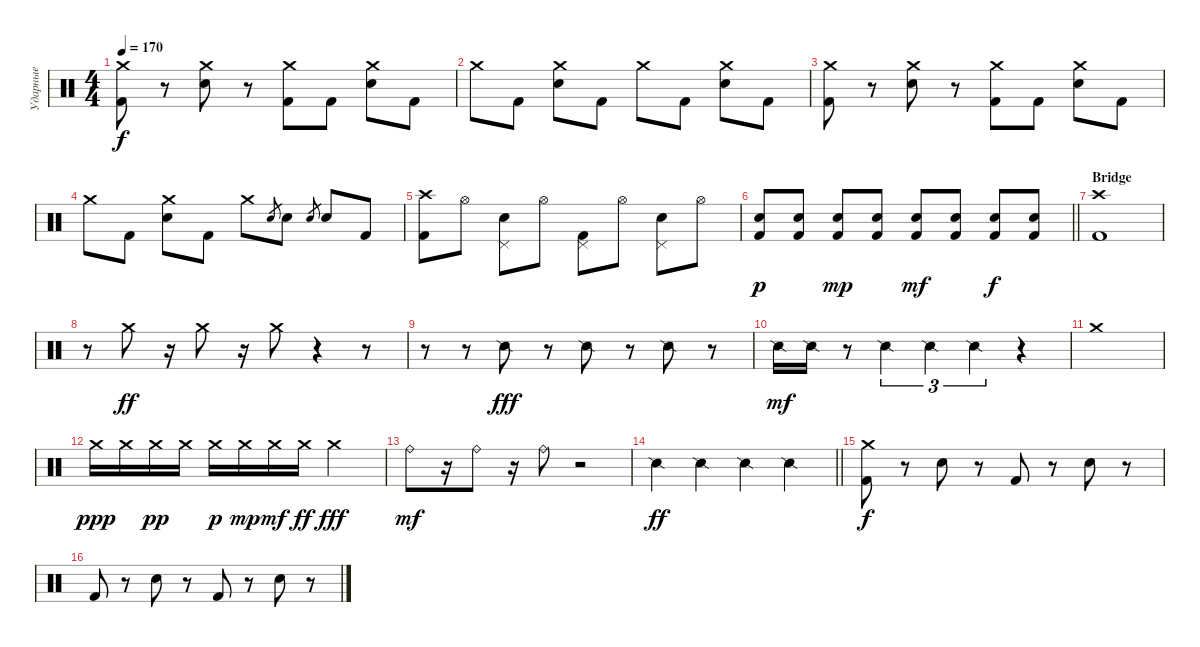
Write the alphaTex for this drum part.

\track ("Ударные" "Ударные") {instrument percussion}
\staff {score}
\articulation defaults
\ts (4 4)
\tempo 170
\clef neutral
\ks c
("Crash medium (hit)" "Kick (hit) 2").8{dy f} r.8 ("Crash medium (hit)" "Electric Snare (hit)").8 r.8 ("Crash medium (hit)" "Kick (hit) 2").8 "Kick (hit) 2".8 ("Crash medium (hit)" "Electric Snare (hit)").8 "Kick (hit) 2".8 |
"Crash medium (hit)".8 "Kick (hit) 2".8 ("Crash medium (hit)" "Electric Snare (hit)").8 "Kick (hit) 2".8 "Crash medium (hit)".8 "Kick (hit) 2".8 ("Crash medium (hit)" "Electric Snare (hit)").8 "Kick (hit) 2".8 |
("Crash medium (hit)" "Kick (hit) 2").8 r.8 ("Crash medium (hit)" "Electric Snare (hit)").8 r.8 ("Crash medium (hit)" "Kick (hit) 2").8 "Kick (hit) 2".8 ("Crash medium (hit)" "Electric Snare (hit)").8 "Kick (hit) 2".8 |
"Crash medium (hit)".8 "Kick (hit) 2".8 ("Crash medium (hit)" "Electric Snare (hit)").8 "Kick (hit) 2".8 "Crash medium (hit)".8 "Electric Snare (hit)".8{gr} "Electric Snare (hit)".8 "Electric Snare (hit)".8{gr} "Electric Snare (hit)".8 "Kick (hit) 2".8 |
("Crash high (hit)" "Kick (hit) 2").8 "Hi-Hat (open)".8 ("Pedal Hi-Hat (hit)" "Electric Snare (hit)").8 "Hi-Hat (open)".8 ("Pedal Hi-Hat (hit)" "Kick (hit) 2").8 "Hi-Hat (open)".8 ("Pedal Hi-Hat (hit)" "Electric Snare (hit)").8 "Hi-Hat (open)".8 |
\barLineRight lightlight
("Electric Snare (hit)" "Kick (hit) 2").8{dy p} ("Electric Snare (hit)" "Kick (hit) 2").8 ("Electric Snare (hit)" "Kick (hit) 2").8{dy mp} ("Electric Snare (hit)" "Kick (hit) 2").8 ("Electric Snare (hit)" "Kick (hit) 2").8{dy mf} ("Electric Snare (hit)" "Kick (hit) 2").8 ("Electric Snare (hit)" "Kick (hit) 2").8{dy f} ("Electric Snare (hit)" "Kick (hit) 2").8 |
\section ("" "Bridge")
("Crash high (hit)" "Kick (hit) 2").1 |
r.8 "Crash medium (hit)".8{dy ff} r.16 "Crash medium (hit)".8 r.16 "Crash medium (hit)".8 r.4 r.8 |
r.8 r.8 "Snare (side stick) 2".8{dy fff} r.8 "Snare (side stick) 2".8 r.8 "Snare (side stick) 2".8 r.8 |
"Snare (side stick) 2".16{dy mf} "Snare (side stick) 2".16 r.8 "Snare (side stick) 2".4{tu (3 2)} "Snare (side stick) 2".4{tu (3 2)} "Snare (side stick) 2".4{tu (3 2)} r.4 |
"Crash medium (hit)".1 |
"Crash medium (hit)".16{dy ppp} "Crash medium (hit)".16 "Crash medium (hit)".16{dy pp} "Crash medium (hit)".16 "Crash medium (hit)".16{dy p} "Crash medium (hit)".16{dy mp} "Crash medium (hit)".16{dy mf} "Crash medium (hit)".16{dy ff} "Crash medium (hit)".2{dy fff} |
"Ride (bell)".8{dy mf} r.16 "Ride (bell)".8 r.16 "Ride (bell)".8 r.2 |
\barLineRight lightlight "Snare (side stick) 2".4{dy ff} "Snare (side stick) 2".4 "Snare (side stick) 2".4 "Snare (side stick) 2".4
|
("Crash medium (hit)" "Kick (hit) 2").8{dy f} r.8 "Electric Snare (hit)".8 r.8 "Kick (hit) 2".8 r.8 "Electric Snare (hit)".8 r.8 |
"Kick (hit) 2".8 r.8 "Electric Snare (hit)".8 r.8 "Kick (hit) 2".8 r.8 "Electric Snare (hit)".8 r.8
